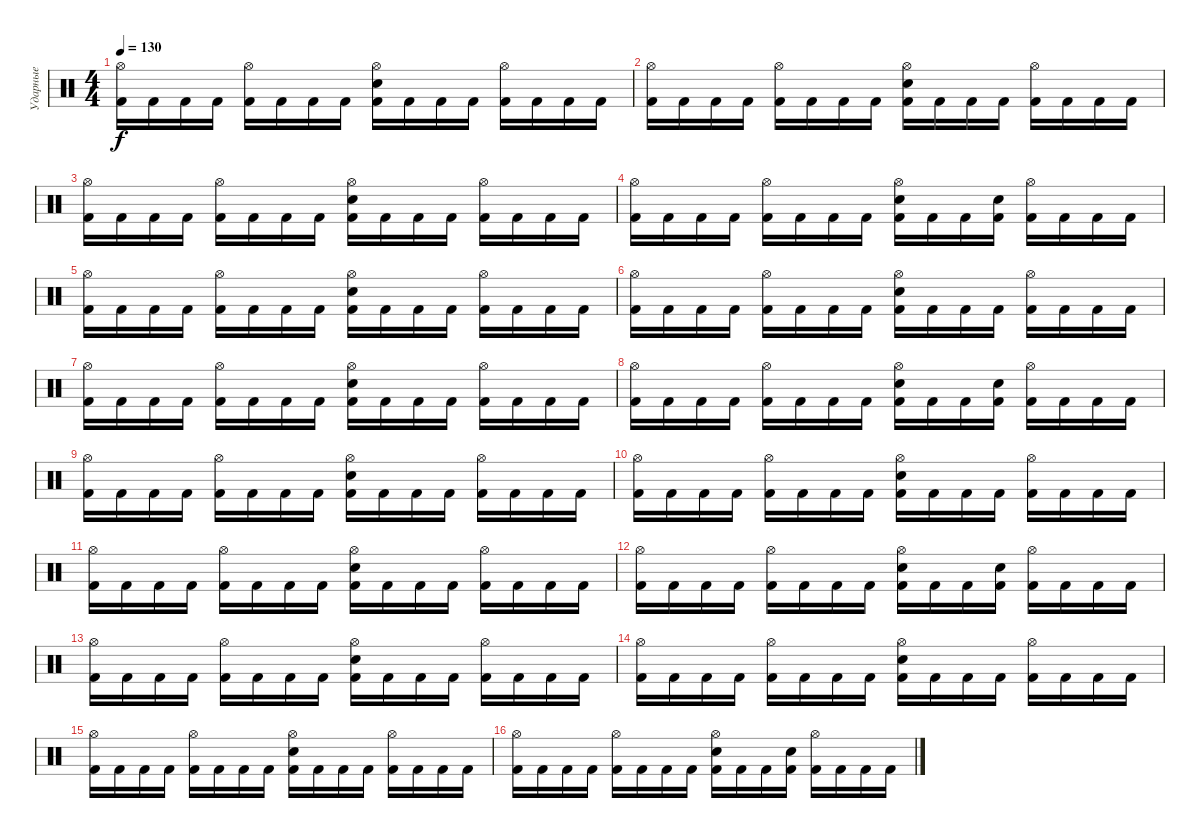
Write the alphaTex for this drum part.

\track ("Ударные" "Ударные") {instrument percussion}
\staff {score}
\articulation defaults
\ts (4 4)
\tempo 130
\clef neutral
\ks c
("Hi-Hat (open)" "Kick (hit) 2").16{dy f} "Kick (hit) 2".16 "Kick (hit) 2".16 "Kick (hit) 2".16 ("Hi-Hat (open)" "Kick (hit) 2").16 "Kick (hit) 2".16 "Kick (hit) 2".16 "Kick (hit) 2".16 ("Hi-Hat (open)" "Electric Snare (hit)" "Kick (hit) 2").16 "Kick (hit) 2".16 "Kick (hit) 2".16 "Kick (hit) 2".16 ("Hi-Hat (open)" "Kick (hit) 2").16 "Kick (hit) 2".16 "Kick (hit) 2".16 "Kick (hit) 2".16 |
("Hi-Hat (open)" "Kick (hit) 2").16 "Kick (hit) 2".16 "Kick (hit) 2".16 "Kick (hit) 2".16 ("Hi-Hat (open)" "Kick (hit) 2").16 "Kick (hit) 2".16 "Kick (hit) 2".16 "Kick (hit) 2".16 ("Hi-Hat (open)" "Electric Snare (hit)" "Kick (hit) 2").16 "Kick (hit) 2".16 "Kick (hit) 2".16 "Kick (hit) 2".16 ("Hi-Hat (open)" "Kick (hit) 2").16 "Kick (hit) 2".16 "Kick (hit) 2".16 "Kick (hit) 2".16 |
("Hi-Hat (open)" "Kick (hit) 2").16 "Kick (hit) 2".16 "Kick (hit) 2".16 "Kick (hit) 2".16 ("Hi-Hat (open)" "Kick (hit) 2").16 "Kick (hit) 2".16 "Kick (hit) 2".16 "Kick (hit) 2".16 ("Hi-Hat (open)" "Electric Snare (hit)" "Kick (hit) 2").16 "Kick (hit) 2".16 "Kick (hit) 2".16 "Kick (hit) 2".16 ("Hi-Hat (open)" "Kick (hit) 2").16 "Kick (hit) 2".16 "Kick (hit) 2".16 "Kick (hit) 2".16 |
("Hi-Hat (open)" "Kick (hit) 2").16 "Kick (hit) 2".16 "Kick (hit) 2".16 "Kick (hit) 2".16 ("Hi-Hat (open)" "Kick (hit) 2").16 "Kick (hit) 2".16 "Kick (hit) 2".16 "Kick (hit) 2".16 ("Hi-Hat (open)" "Electric Snare (hit)" "Kick (hit) 2").16 "Kick (hit) 2".16 "Kick (hit) 2".16 ("Electric Snare (hit)" "Kick (hit) 2").16 ("Hi-Hat (open)" "Kick (hit) 2").16 "Kick (hit) 2".16 "Kick (hit) 2".16 "Kick (hit) 2".16 |
("Hi-Hat (open)" "Kick (hit) 2").16 "Kick (hit) 2".16 "Kick (hit) 2".16 "Kick (hit) 2".16 ("Hi-Hat (open)" "Kick (hit) 2").16 "Kick (hit) 2".16 "Kick (hit) 2".16 "Kick (hit) 2".16 ("Hi-Hat (open)" "Electric Snare (hit)" "Kick (hit) 2").16 "Kick (hit) 2".16 "Kick (hit) 2".16 "Kick (hit) 2".16 ("Hi-Hat (open)" "Kick (hit) 2").16 "Kick (hit) 2".16 "Kick (hit) 2".16 "Kick (hit) 2".16 |
("Hi-Hat (open)" "Kick (hit) 2").16 "Kick (hit) 2".16 "Kick (hit) 2".16 "Kick (hit) 2".16 ("Hi-Hat (open)" "Kick (hit) 2").16 "Kick (hit) 2".16 "Kick (hit) 2".16 "Kick (hit) 2".16 ("Hi-Hat (open)" "Electric Snare (hit)" "Kick (hit) 2").16 "Kick (hit) 2".16 "Kick (hit) 2".16 "Kick (hit) 2".16 ("Hi-Hat (open)" "Kick (hit) 2").16 "Kick (hit) 2".16 "Kick (hit) 2".16 "Kick (hit) 2".16 |
("Hi-Hat (open)" "Kick (hit) 2").16 "Kick (hit) 2".16 "Kick (hit) 2".16 "Kick (hit) 2".16 ("Hi-Hat (open)" "Kick (hit) 2").16 "Kick (hit) 2".16 "Kick (hit) 2".16 "Kick (hit) 2".16 ("Hi-Hat (open)" "Electric Snare (hit)" "Kick (hit) 2").16 "Kick (hit) 2".16 "Kick (hit) 2".16 "Kick (hit) 2".16 ("Hi-Hat (open)" "Kick (hit) 2").16 "Kick (hit) 2".16 "Kick (hit) 2".16 "Kick (hit) 2".16 |
("Hi-Hat (open)" "Kick (hit) 2").16 "Kick (hit) 2".16 "Kick (hit) 2".16 "Kick (hit) 2".16 ("Hi-Hat (open)" "Kick (hit) 2").16 "Kick (hit) 2".16 "Kick (hit) 2".16 "Kick (hit) 2".16 ("Hi-Hat (open)" "Electric Snare (hit)" "Kick (hit) 2").16 "Kick (hit) 2".16 "Kick (hit) 2".16 ("Electric Snare (hit)" "Kick (hit) 2").16 ("Hi-Hat (open)" "Kick (hit) 2").16 "Kick (hit) 2".16 "Kick (hit) 2".16 "Kick (hit) 2".16 |
("Hi-Hat (open)" "Kick (hit) 2").16 "Kick (hit) 2".16 "Kick (hit) 2".16 "Kick (hit) 2".16 ("Hi-Hat (open)" "Kick (hit) 2").16 "Kick (hit) 2".16 "Kick (hit) 2".16 "Kick (hit) 2".16 ("Hi-Hat (open)" "Electric Snare (hit)" "Kick (hit) 2").16 "Kick (hit) 2".16 "Kick (hit) 2".16 "Kick (hit) 2".16 ("Hi-Hat (open)" "Kick (hit) 2").16 "Kick (hit) 2".16 "Kick (hit) 2".16 "Kick (hit) 2".16 |
("Hi-Hat (open)" "Kick (hit) 2").16 "Kick (hit) 2".16 "Kick (hit) 2".16 "Kick (hit) 2".16 ("Hi-Hat (open)" "Kick (hit) 2").16 "Kick (hit) 2".16 "Kick (hit) 2".16 "Kick (hit) 2".16 ("Hi-Hat (open)" "Electric Snare (hit)" "Kick (hit) 2").16 "Kick (hit) 2".16 "Kick (hit) 2".16 "Kick (hit) 2".16 ("Hi-Hat (open)" "Kick (hit) 2").16 "Kick (hit) 2".16 "Kick (hit) 2".16 "Kick (hit) 2".16 |
("Hi-Hat (open)" "Kick (hit) 2").16 "Kick (hit) 2".16 "Kick (hit) 2".16 "Kick (hit) 2".16 ("Hi-Hat (open)" "Kick (hit) 2").16 "Kick (hit) 2".16 "Kick (hit) 2".16 "Kick (hit) 2".16 ("Hi-Hat (open)" "Electric Snare (hit)" "Kick (hit) 2").16 "Kick (hit) 2".16 "Kick (hit) 2".16 "Kick (hit) 2".16 ("Hi-Hat (open)" "Kick (hit) 2").16 "Kick (hit) 2".16 "Kick (hit) 2".16 "Kick (hit) 2".16 |
("Hi-Hat (open)" "Kick (hit) 2").16 "Kick (hit) 2".16 "Kick (hit) 2".16 "Kick (hit) 2".16 ("Hi-Hat (open)" "Kick (hit) 2").16 "Kick (hit) 2".16 "Kick (hit) 2".16 "Kick (hit) 2".16 ("Hi-Hat (open)" "Electric Snare (hit)" "Kick (hit) 2").16 "Kick (hit) 2".16 "Kick (hit) 2".16 ("Electric Snare (hit)" "Kick (hit) 2").16 ("Hi-Hat (open)" "Kick (hit) 2").16 "Kick (hit) 2".16 "Kick (hit) 2".16 "Kick (hit) 2".16 |
("Hi-Hat (open)" "Kick (hit) 2").16 "Kick (hit) 2".16 "Kick (hit) 2".16 "Kick (hit) 2".16 ("Hi-Hat (open)" "Kick (hit) 2").16 "Kick (hit) 2".16 "Kick (hit) 2".16 "Kick (hit) 2".16 ("Hi-Hat (open)" "Electric Snare (hit)" "Kick (hit) 2").16 "Kick (hit) 2".16 "Kick (hit) 2".16 "Kick (hit) 2".16 ("Hi-Hat (open)" "Kick (hit) 2").16 "Kick (hit) 2".16 "Kick (hit) 2".16 "Kick (hit) 2".16 |
("Hi-Hat (open)" "Kick (hit) 2").16 "Kick (hit) 2".16 "Kick (hit) 2".16 "Kick (hit) 2".16 ("Hi-Hat (open)" "Kick (hit) 2").16 "Kick (hit) 2".16 "Kick (hit) 2".16 "Kick (hit) 2".16 ("Hi-Hat (open)" "Electric Snare (hit)" "Kick (hit) 2").16 "Kick (hit) 2".16 "Kick (hit) 2".16 "Kick (hit) 2".16 ("Hi-Hat (open)" "Kick (hit) 2").16 "Kick (hit) 2".16 "Kick (hit) 2".16 "Kick (hit) 2".16 |
("Hi-Hat (open)" "Kick (hit) 2").16 "Kick (hit) 2".16 "Kick (hit) 2".16 "Kick (hit) 2".16 ("Hi-Hat (open)" "Kick (hit) 2").16 "Kick (hit) 2".16 "Kick (hit) 2".16 "Kick (hit) 2".16 ("Hi-Hat (open)" "Electric Snare (hit)" "Kick (hit) 2").16 "Kick (hit) 2".16 "Kick (hit) 2".16 "Kick (hit) 2".16 ("Hi-Hat (open)" "Kick (hit) 2").16 "Kick (hit) 2".16 "Kick (hit) 2".16 "Kick (hit) 2".16 |
("Hi-Hat (open)" "Kick (hit) 2").16 "Kick (hit) 2".16 "Kick (hit) 2".16 "Kick (hit) 2".16 ("Hi-Hat (open)" "Kick (hit) 2").16 "Kick (hit) 2".16 "Kick (hit) 2".16 "Kick (hit) 2".16 ("Hi-Hat (open)" "Electric Snare (hit)" "Kick (hit) 2").16 "Kick (hit) 2".16 "Kick (hit) 2".16 ("Electric Snare (hit)" "Kick (hit) 2").16 ("Hi-Hat (open)" "Kick (hit) 2").16 "Kick (hit) 2".16 "Kick (hit) 2".16 "Kick (hit) 2".16
